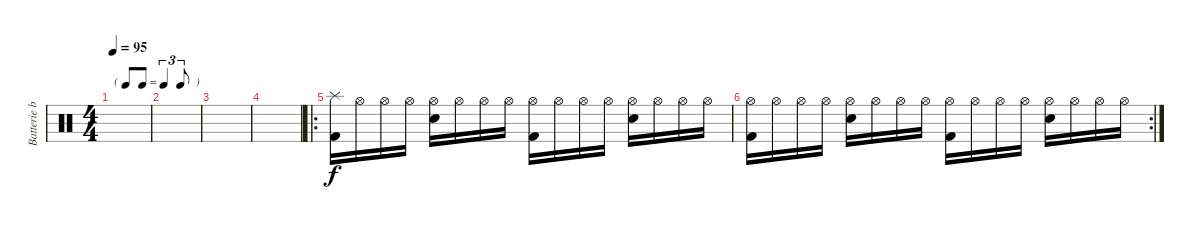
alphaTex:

\track ("Batterie bass" "Batterie b") {instrument percussion}
\staff {score}
\articulation defaults
\ts (4 4)
\tf triplet8th
\tempo 95
\clef neutral
\ks c
|
|
|
|
\ro
("Splash (hit)" "Kick (hit) 2").16{balance 0} "Hi-Hat (open)".16 "Hi-Hat (open)".16 "Hi-Hat (open)".16 ("Electric Snare (hit)" "Hi-Hat (open)").16 "Hi-Hat (open)".16 "Hi-Hat (open)".16 "Hi-Hat (open)".16 ("Hi-Hat (open)" "Kick (hit) 2").16 "Hi-Hat (open)".16 "Hi-Hat (open)".16 "Hi-Hat (open)".16 ("Electric Snare (hit)" "Hi-Hat (open)").16 "Hi-Hat (open)".16 "Hi-Hat (open)".16 "Hi-Hat (open)".16 |
\rc 2
("Hi-Hat (open)" "Kick (hit) 2").16 "Hi-Hat (open)".16 "Hi-Hat (open)".16 "Hi-Hat (open)".16 ("Electric Snare (hit)" "Hi-Hat (open)").16 "Hi-Hat (open)".16 "Hi-Hat (open)".16 "Hi-Hat (open)".16 ("Hi-Hat (open)" "Kick (hit) 2").16 "Hi-Hat (open)".16 "Hi-Hat (open)".16 "Hi-Hat (open)".16 ("Electric Snare (hit)" "Hi-Hat (open)").16 "Hi-Hat (open)".16 "Hi-Hat (open)".16 "Hi-Hat (open)".16
